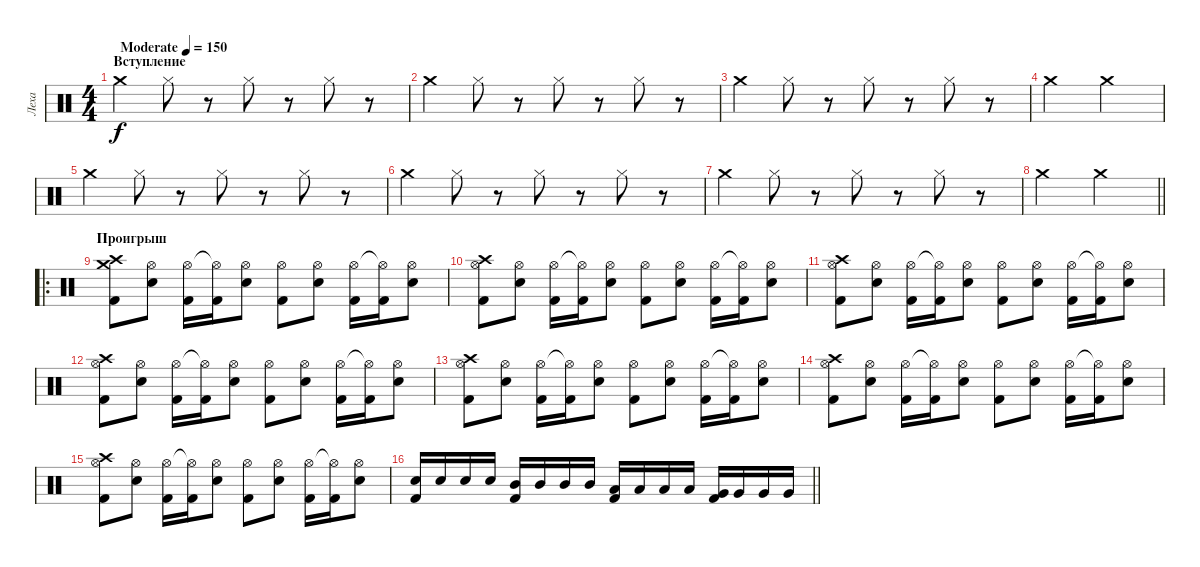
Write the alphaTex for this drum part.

\track ("Леха" "Леха") {instrument percussion}
\staff {score}
\articulation defaults
\ts (4 4)
\section ("" "Вступление")
\tempo (150 "Moderate")
\clef neutral
\ks c "Crash medium (hit)".4{dy f} "Hi-Hat (closed)".8
r.8 "Hi-Hat (closed)".8 r.8 "Hi-Hat (closed)".8 r.8 |
"Crash medium (hit)".4 "Hi-Hat (closed)".8 r.8 "Hi-Hat (closed)".8 r.8 "Hi-Hat (closed)".8 r.8 |
"Crash medium (hit)".4 "Hi-Hat (closed)".8 r.8 "Hi-Hat (closed)".8 r.8 "Hi-Hat (closed)".8 r.8 |
"Crash medium (hit)".2 "Crash medium (hit)".2 |
"Crash medium (hit)".4 "Hi-Hat (closed)".8 r.8 "Hi-Hat (closed)".8 r.8 "Hi-Hat (closed)".8 r.8 |
"Crash medium (hit)".4 "Hi-Hat (closed)".8 r.8 "Hi-Hat (closed)".8 r.8 "Hi-Hat (closed)".8 r.8 |
"Crash medium (hit)".4 "Hi-Hat (closed)".8 r.8 "Hi-Hat (closed)".8 r.8 "Hi-Hat (closed)".8 r.8 |
\barLineRight lightlight "Crash medium (hit)".2 "Crash medium (hit)".2
|
\ro
\section ("" "Проигрыш")
("Crash medium (hit)" "Crash high (hit)" "Kick (hit) 2").8 ("Hi-Hat (open)" "Snare (hit) 2").8 ("Hi-Hat (open)" "Kick (hit) 2").16 ("Hi-Hat (open)"{t} "Kick (hit) 2").16 ("Hi-Hat (open)" "Snare (hit) 2").8 ("Hi-Hat (open)" "Kick (hit) 2").8 ("Hi-Hat (open)" "Snare (hit) 2").8 ("Hi-Hat (open)" "Kick (hit) 2").16 ("Hi-Hat (open)"{t} "Kick (hit) 2").16 ("Hi-Hat (open)" "Snare (hit) 2").8 |
("Hi-Hat (open)" "Crash high (hit)" "Kick (hit) 2").8 ("Hi-Hat (open)" "Snare (hit) 2").8 ("Hi-Hat (open)" "Kick (hit) 2").16 ("Hi-Hat (open)"{t} "Kick (hit) 2").16 ("Hi-Hat (open)" "Snare (hit) 2").8 ("Hi-Hat (open)" "Kick (hit) 2").8 ("Hi-Hat (open)" "Snare (hit) 2").8 ("Hi-Hat (open)" "Kick (hit) 2").16 ("Hi-Hat (open)"{t} "Kick (hit) 2").16 ("Hi-Hat (open)" "Snare (hit) 2").8 |
("Hi-Hat (open)" "Crash high (hit)" "Kick (hit) 2").8 ("Hi-Hat (open)" "Snare (hit) 2").8 ("Hi-Hat (open)" "Kick (hit) 2").16 ("Hi-Hat (open)"{t} "Kick (hit) 2").16 ("Hi-Hat (open)" "Snare (hit) 2").8 ("Hi-Hat (open)" "Kick (hit) 2").8 ("Hi-Hat (open)" "Snare (hit) 2").8 ("Hi-Hat (open)" "Kick (hit) 2").16 ("Hi-Hat (open)"{t} "Kick (hit) 2").16 ("Hi-Hat (open)" "Snare (hit) 2").8 |
("Hi-Hat (open)" "Crash high (hit)" "Kick (hit) 2").8 ("Hi-Hat (open)" "Snare (hit) 2").8 ("Hi-Hat (open)" "Kick (hit) 2").16 ("Hi-Hat (open)"{t} "Kick (hit) 2").16 ("Hi-Hat (open)" "Snare (hit) 2").8 ("Hi-Hat (open)" "Kick (hit) 2").8 ("Hi-Hat (open)" "Snare (hit) 2").8 ("Hi-Hat (open)" "Kick (hit) 2").16 ("Hi-Hat (open)"{t} "Kick (hit) 2").16 ("Hi-Hat (open)" "Snare (hit) 2").8 |
("Hi-Hat (open)" "Crash high (hit)" "Kick (hit) 2").8 ("Hi-Hat (open)" "Snare (hit) 2").8 ("Hi-Hat (open)" "Kick (hit) 2").16 ("Hi-Hat (open)"{t} "Kick (hit) 2").16 ("Hi-Hat (open)" "Snare (hit) 2").8 ("Hi-Hat (open)" "Kick (hit) 2").8 ("Hi-Hat (open)" "Snare (hit) 2").8 ("Hi-Hat (open)" "Kick (hit) 2").16 ("Hi-Hat (open)"{t} "Kick (hit) 2").16 ("Hi-Hat (open)" "Snare (hit) 2").8 |
("Hi-Hat (open)" "Crash high (hit)" "Kick (hit) 2").8 ("Hi-Hat (open)" "Snare (hit) 2").8 ("Hi-Hat (open)" "Kick (hit) 2").16 ("Hi-Hat (open)"{t} "Kick (hit) 2").16 ("Hi-Hat (open)" "Snare (hit) 2").8 ("Hi-Hat (open)" "Kick (hit) 2").8 ("Hi-Hat (open)" "Snare (hit) 2").8 ("Hi-Hat (open)" "Kick (hit) 2").16 ("Hi-Hat (open)"{t} "Kick (hit) 2").16 ("Hi-Hat (open)" "Snare (hit) 2").8 |
("Hi-Hat (open)" "Crash high (hit)" "Kick (hit) 2").8 ("Hi-Hat (open)" "Snare (hit) 2").8 ("Hi-Hat (open)" "Kick (hit) 2").16 ("Hi-Hat (open)"{t} "Kick (hit) 2").16 ("Hi-Hat (open)" "Snare (hit) 2").8 ("Hi-Hat (open)" "Kick (hit) 2").8 ("Hi-Hat (open)" "Snare (hit) 2").8 ("Hi-Hat (open)" "Kick (hit) 2").16 ("Hi-Hat (open)"{t} "Kick (hit) 2").16 ("Hi-Hat (open)" "Snare (hit) 2").8 |
\barLineRight lightlight
("Snare (hit) 2" "Kick (hit) 2").16 "Snare (hit) 2".16 "Snare (hit) 2".16 "Snare (hit) 2".16 ("Mid Tom (hit)" "Kick (hit) 2").16 "Mid Tom (hit)".16 "Mid Tom (hit)".16 "Mid Tom (hit)".16 ("Low Tom (hit)" "Kick (hit) 2").16 "Low Tom (hit)".16 "Low Tom (hit)".16 "Low Tom (hit)".16 ("Very Low Tom (hit)" "Kick (hit) 2").16 "Very Low Tom (hit)".16 "Very Low Tom (hit)".16 "Very Low Tom (hit)".16
